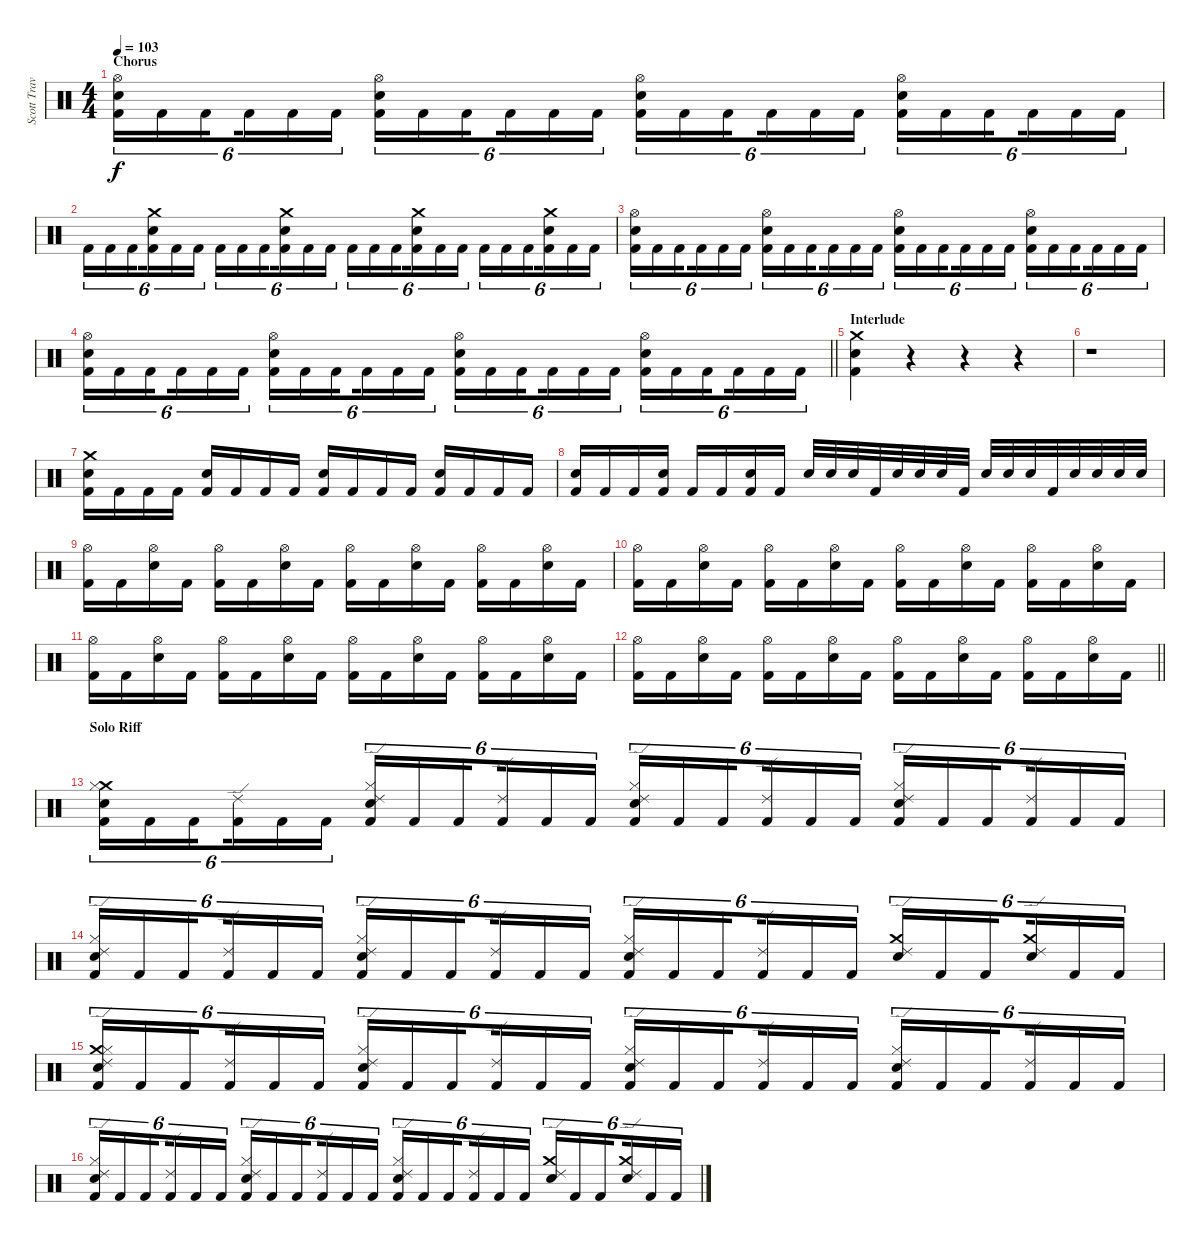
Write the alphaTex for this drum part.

\track ("Scott Travis" "Scott Trav") {instrument percussion}
\staff {score}
\articulation defaults
\ts (4 4)
\section ("" "Chorus")
\tempo 103
\clef neutral
\ks c
("Hi-Hat (open)" "Snare (hit) 2" "Kick (hit) 2").16{tu (6 4) dy f} "Kick (hit) 2".16{tu (6 4)} "Kick (hit) 2".16{tu (6 4) beam splitsecondary} "Kick (hit) 2".16{tu (6 4)} "Kick (hit) 2".16{tu (6 4)} "Kick (hit) 2".16{tu (6 4)} ("Hi-Hat (open)" "Snare (hit) 2" "Kick (hit) 2").16{tu (6 4)} "Kick (hit) 2".16{tu (6 4)} "Kick (hit) 2".16{tu (6 4) beam splitsecondary} "Kick (hit) 2".16{tu (6 4)} "Kick (hit) 2".16{tu (6 4)} "Kick (hit) 2".16{tu (6 4)} ("Hi-Hat (open)" "Snare (hit) 2" "Kick (hit) 2").16{tu (6 4)} "Kick (hit) 2".16{tu (6 4)} "Kick (hit) 2".16{tu (6 4) beam splitsecondary} "Kick (hit) 2".16{tu (6 4)} "Kick (hit) 2".16{tu (6 4)} "Kick (hit) 2".16{tu (6 4)} ("Hi-Hat (open)" "Snare (hit) 2" "Kick (hit) 2").16{tu (6 4)} "Kick (hit) 2".16{tu (6 4)} "Kick (hit) 2".16{tu (6 4) beam splitsecondary} "Kick (hit) 2".16{tu (6 4)} "Kick (hit) 2".16{tu (6 4)} "Kick (hit) 2".16{tu (6 4)} |
"Kick (hit) 2".16{tu (6 4)} "Kick (hit) 2".16{tu (6 4)} "Kick (hit) 2".16{tu (6 4) beam splitsecondary} ("Crash medium (hit)" "Snare (hit) 2" "Kick (hit) 2").16{tu (6 4)} "Kick (hit) 2".16{tu (6 4)} "Kick (hit) 2".16{tu (6 4)} "Kick (hit) 2".16{tu (6 4)} "Kick (hit) 2".16{tu (6 4)} "Kick (hit) 2".16{tu (6 4) beam splitsecondary} ("Crash medium (hit)" "Snare (hit) 2" "Kick (hit) 2").16{tu (6 4)} "Kick (hit) 2".16{tu (6 4)} "Kick (hit) 2".16{tu (6 4)} "Kick (hit) 2".16{tu (6 4)} "Kick (hit) 2".16{tu (6 4)} "Kick (hit) 2".16{tu (6 4) beam splitsecondary} ("Crash medium (hit)" "Snare (hit) 2" "Kick (hit) 2").16{tu (6 4)} "Kick (hit) 2".16{tu (6 4)} "Kick (hit) 2".16{tu (6 4)} "Kick (hit) 2".16{tu (6 4)} "Kick (hit) 2".16{tu (6 4)} "Kick (hit) 2".16{tu (6 4) beam splitsecondary} ("Snare (hit) 2" "Crash medium (hit)" "Kick (hit) 2").16{tu (6 4)} "Kick (hit) 2".16{tu (6 4)} "Kick (hit) 2".16{tu (6 4)} |
("Hi-Hat (open)" "Snare (hit) 2" "Kick (hit) 2").16{tu (6 4)} "Kick (hit) 2".16{tu (6 4)} "Kick (hit) 2".16{tu (6 4) beam splitsecondary} "Kick (hit) 2".16{tu (6 4)} "Kick (hit) 2".16{tu (6 4)} "Kick (hit) 2".16{tu (6 4)} ("Hi-Hat (open)" "Snare (hit) 2" "Kick (hit) 2").16{tu (6 4)} "Kick (hit) 2".16{tu (6 4)} "Kick (hit) 2".16{tu (6 4) beam splitsecondary} "Kick (hit) 2".16{tu (6 4)} "Kick (hit) 2".16{tu (6 4)} "Kick (hit) 2".16{tu (6 4)} ("Hi-Hat (open)" "Snare (hit) 2" "Kick (hit) 2").16{tu (6 4)} "Kick (hit) 2".16{tu (6 4)} "Kick (hit) 2".16{tu (6 4) beam splitsecondary} "Kick (hit) 2".16{tu (6 4)} "Kick (hit) 2".16{tu (6 4)} "Kick (hit) 2".16{tu (6 4)} ("Hi-Hat (open)" "Snare (hit) 2" "Kick (hit) 2").16{tu (6 4)} "Kick (hit) 2".16{tu (6 4)} "Kick (hit) 2".16{tu (6 4) beam splitsecondary} "Kick (hit) 2".16{tu (6 4)} "Kick (hit) 2".16{tu (6 4)} "Kick (hit) 2".16{tu (6 4)} |
\barLineRight lightlight
("Hi-Hat (open)" "Snare (hit) 2" "Kick (hit) 2").16{tu (6 4)} "Kick (hit) 2".16{tu (6 4)} "Kick (hit) 2".16{tu (6 4) beam splitsecondary} "Kick (hit) 2".16{tu (6 4)} "Kick (hit) 2".16{tu (6 4)} "Kick (hit) 2".16{tu (6 4)} ("Hi-Hat (open)" "Snare (hit) 2" "Kick (hit) 2").16{tu (6 4)} "Kick (hit) 2".16{tu (6 4)} "Kick (hit) 2".16{tu (6 4) beam splitsecondary} "Kick (hit) 2".16{tu (6 4)} "Kick (hit) 2".16{tu (6 4)} "Kick (hit) 2".16{tu (6 4)} ("Hi-Hat (open)" "Snare (hit) 2" "Kick (hit) 2").16{tu (6 4)} "Kick (hit) 2".16{tu (6 4)} "Kick (hit) 2".16{tu (6 4) beam splitsecondary} "Kick (hit) 2".16{tu (6 4)} "Kick (hit) 2".16{tu (6 4)} "Kick (hit) 2".16{tu (6 4)} ("Hi-Hat (open)" "Snare (hit) 2" "Kick (hit) 2").16{tu (6 4)} "Kick (hit) 2".16{tu (6 4)} "Kick (hit) 2".16{tu (6 4) beam splitsecondary} "Kick (hit) 2".16{tu (6 4)} "Kick (hit) 2".16{tu (6 4)} "Kick (hit) 2".16{tu (6 4)} |
\section ("" "Interlude")
("Crash medium (hit)" "Snare (hit) 2" "Kick (hit) 2").4 r.4 r.4 r.4 |
r.1 |
("Crash medium (hit)" "Snare (hit) 2" "Kick (hit) 2").16 "Kick (hit) 2".16 "Kick (hit) 2".16 "Kick (hit) 2".16 ("Snare (hit) 2" "Kick (hit) 2").16 "Kick (hit) 2".16 "Kick (hit) 2".16 "Kick (hit) 2".16 ("Snare (hit) 2" "Kick (hit) 2").16 "Kick (hit) 2".16 "Kick (hit) 2".16 "Kick (hit) 2".16 ("Snare (hit) 2" "Kick (hit) 2").16 "Kick (hit) 2".16 "Kick (hit) 2".16 "Kick (hit) 2".16 |
("Snare (hit) 2" "Kick (hit) 2").16 "Kick (hit) 2".16 "Kick (hit) 2".16 ("Snare (hit) 2" "Kick (hit) 2").16 "Kick (hit) 2".16 "Kick (hit) 2".16 ("Snare (hit) 2" "Kick (hit) 2").16 "Kick (hit) 2".16 "Snare (hit) 2".32 "Snare (hit) 2".32 "Snare (hit) 2".32 "Kick (hit) 2".32 "Snare (hit) 2".32 "Snare (hit) 2".32 "Snare (hit) 2".32 "Kick (hit) 2".32 "Snare (hit) 2".32 "Snare (hit) 2".32 "Snare (hit) 2".32 "Kick (hit) 2".32 "Snare (hit) 2".32 "Snare (hit) 2".32 "Snare (hit) 2".32 "Snare (hit) 2".32 |
("Hi-Hat (open)" "Kick (hit) 2").16 "Kick (hit) 2".16 ("Hi-Hat (open)" "Snare (hit) 2").16 "Kick (hit) 2".16 ("Hi-Hat (open)" "Kick (hit) 2").16 "Kick (hit) 2".16 ("Hi-Hat (open)" "Snare (hit) 2").16 "Kick (hit) 2".16 ("Hi-Hat (open)" "Kick (hit) 2").16 "Kick (hit) 2".16 ("Hi-Hat (open)" "Snare (hit) 2").16 "Kick (hit) 2".16 ("Hi-Hat (open)" "Kick (hit) 2").16 "Kick (hit) 2".16 ("Hi-Hat (open)" "Snare (hit) 2").16 "Kick (hit) 2".16 |
("Hi-Hat (open)" "Kick (hit) 2").16 "Kick (hit) 2".16 ("Hi-Hat (open)" "Snare (hit) 2").16 "Kick (hit) 2".16 ("Hi-Hat (open)" "Kick (hit) 2").16 "Kick (hit) 2".16 ("Hi-Hat (open)" "Snare (hit) 2").16 "Kick (hit) 2".16 ("Hi-Hat (open)" "Kick (hit) 2").16 "Kick (hit) 2".16 ("Hi-Hat (open)" "Snare (hit) 2").16 "Kick (hit) 2".16 ("Hi-Hat (open)" "Kick (hit) 2").16 "Kick (hit) 2".16 ("Hi-Hat (open)" "Snare (hit) 2").16 "Kick (hit) 2".16 |
("Hi-Hat (open)" "Kick (hit) 2").16 "Kick (hit) 2".16 ("Hi-Hat (open)" "Snare (hit) 2").16 "Kick (hit) 2".16 ("Hi-Hat (open)" "Kick (hit) 2").16 "Kick (hit) 2".16 ("Hi-Hat (open)" "Snare (hit) 2").16 "Kick (hit) 2".16 ("Hi-Hat (open)" "Kick (hit) 2").16 "Kick (hit) 2".16 ("Hi-Hat (open)" "Snare (hit) 2").16 "Kick (hit) 2".16 ("Hi-Hat (open)" "Kick (hit) 2").16 "Kick (hit) 2".16 ("Hi-Hat (open)" "Snare (hit) 2").16 "Kick (hit) 2".16 |
\barLineRight lightlight
("Hi-Hat (open)" "Kick (hit) 2").16 "Kick (hit) 2".16 ("Hi-Hat (open)" "Snare (hit) 2").16 "Kick (hit) 2".16 ("Hi-Hat (open)" "Kick (hit) 2").16 "Kick (hit) 2".16 ("Hi-Hat (open)" "Snare (hit) 2").16 "Kick (hit) 2".16 ("Hi-Hat (open)" "Kick (hit) 2").16 "Kick (hit) 2".16 ("Hi-Hat (open)" "Snare (hit) 2").16 "Kick (hit) 2".16 ("Hi-Hat (open)" "Kick (hit) 2").16 "Kick (hit) 2".16 ("Hi-Hat (open)" "Snare (hit) 2").16 "Kick (hit) 2".16 |
\section ("" "Solo Riff")
("Crash medium (hit)" "Hi-Hat (closed)" "Snare (hit) 2" "Kick (hit) 2").16{tu (6 4)} "Kick (hit) 2".16{tu (6 4)} "Kick (hit) 2".16{tu (6 4) beam splitsecondary} ("Ride (edge) 2" "Kick (hit) 2").16{tu (6 4)} "Kick (hit) 2".16{tu (6 4)} "Kick (hit) 2".16{tu (6 4)} ("Ride (edge) 2" "Hi-Hat (closed)" "Snare (hit) 2" "Kick (hit) 2").16{tu (6 4)} "Kick (hit) 2".16{tu (6 4)} "Kick (hit) 2".16{tu (6 4) beam splitsecondary} ("Ride (edge) 2" "Kick (hit) 2").16{tu (6 4)} "Kick (hit) 2".16{tu (6 4)} "Kick (hit) 2".16{tu (6 4)} ("Ride (edge) 2" "Hi-Hat (closed)" "Snare (hit) 2" "Kick (hit) 2").16{tu (6 4)} "Kick (hit) 2".16{tu (6 4)} "Kick (hit) 2".16{tu (6 4) beam splitsecondary} ("Ride (edge) 2" "Kick (hit) 2").16{tu (6 4)} "Kick (hit) 2".16{tu (6 4)} "Kick (hit) 2".16{tu (6 4)} ("Ride (edge) 2" "Hi-Hat (closed)" "Snare (hit) 2" "Kick (hit) 2").16{tu (6 4)} "Kick (hit) 2".16{tu (6 4)} "Kick (hit) 2".16{tu (6 4) beam splitsecondary} ("Ride (edge) 2" "Kick (hit) 2").16{tu (6 4)} "Kick (hit) 2".16{tu (6 4)} "Kick (hit) 2".16{tu (6 4)} |
("Ride (edge) 2" "Hi-Hat (closed)" "Snare (hit) 2" "Kick (hit) 2").16{tu (6 4)} "Kick (hit) 2".16{tu (6 4)} "Kick (hit) 2".16{tu (6 4) beam splitsecondary} ("Ride (edge) 2" "Kick (hit) 2").16{tu (6 4)} "Kick (hit) 2".16{tu (6 4)} "Kick (hit) 2".16{tu (6 4)} ("Ride (edge) 2" "Hi-Hat (closed)" "Snare (hit) 2" "Kick (hit) 2").16{tu (6 4)} "Kick (hit) 2".16{tu (6 4)} "Kick (hit) 2".16{tu (6 4) beam splitsecondary} ("Ride (edge) 2" "Kick (hit) 2").16{tu (6 4)} "Kick (hit) 2".16{tu (6 4)} "Kick (hit) 2".16{tu (6 4)} ("Ride (edge) 2" "Hi-Hat (closed)" "Snare (hit) 2" "Kick (hit) 2").16{tu (6 4)} "Kick (hit) 2".16{tu (6 4)} "Kick (hit) 2".16{tu (6 4) beam splitsecondary} ("Ride (edge) 2" "Kick (hit) 2").16{tu (6 4)} "Kick (hit) 2".16{tu (6 4)} "Kick (hit) 2".16{tu (6 4)} ("Ride (edge) 2" "Crash medium (hit)" "Snare (hit) 2").16{tu (6 4)} "Kick (hit) 2".16{tu (6 4)} "Kick (hit) 2".16{tu (6 4) beam splitsecondary} ("Ride (edge) 2" "Crash medium (hit)" "Snare (hit) 2").16{tu (6 4)} "Kick (hit) 2".16{tu (6 4)} "Kick (hit) 2".16{tu (6 4)} |
("Ride (edge) 2" "Crash medium (hit)" "Hi-Hat (closed)" "Snare (hit) 2" "Kick (hit) 2").16{tu (6 4)} "Kick (hit) 2".16{tu (6 4)} "Kick (hit) 2".16{tu (6 4) beam splitsecondary} ("Ride (edge) 2" "Kick (hit) 2").16{tu (6 4)} "Kick (hit) 2".16{tu (6 4)} "Kick (hit) 2".16{tu (6 4)} ("Ride (edge) 2" "Hi-Hat (closed)" "Snare (hit) 2" "Kick (hit) 2").16{tu (6 4)} "Kick (hit) 2".16{tu (6 4)} "Kick (hit) 2".16{tu (6 4) beam splitsecondary} ("Ride (edge) 2" "Kick (hit) 2").16{tu (6 4)} "Kick (hit) 2".16{tu (6 4)} "Kick (hit) 2".16{tu (6 4)} ("Ride (edge) 2" "Hi-Hat (closed)" "Snare (hit) 2" "Kick (hit) 2").16{tu (6 4)} "Kick (hit) 2".16{tu (6 4)} "Kick (hit) 2".16{tu (6 4) beam splitsecondary} ("Ride (edge) 2" "Kick (hit) 2").16{tu (6 4)} "Kick (hit) 2".16{tu (6 4)} "Kick (hit) 2".16{tu (6 4)} ("Ride (edge) 2" "Hi-Hat (closed)" "Snare (hit) 2" "Kick (hit) 2").16{tu (6 4)} "Kick (hit) 2".16{tu (6 4)} "Kick (hit) 2".16{tu (6 4) beam splitsecondary} ("Ride (edge) 2" "Kick (hit) 2").16{tu (6 4)} "Kick (hit) 2".16{tu (6 4)} "Kick (hit) 2".16{tu (6 4)} |
("Ride (edge) 2" "Hi-Hat (closed)" "Snare (hit) 2" "Kick (hit) 2").16{tu (6 4)} "Kick (hit) 2".16{tu (6 4)} "Kick (hit) 2".16{tu (6 4) beam splitsecondary} ("Ride (edge) 2" "Kick (hit) 2").16{tu (6 4)} "Kick (hit) 2".16{tu (6 4)} "Kick (hit) 2".16{tu (6 4)} ("Ride (edge) 2" "Hi-Hat (closed)" "Snare (hit) 2" "Kick (hit) 2").16{tu (6 4)} "Kick (hit) 2".16{tu (6 4)} "Kick (hit) 2".16{tu (6 4) beam splitsecondary} ("Ride (edge) 2" "Kick (hit) 2").16{tu (6 4)} "Kick (hit) 2".16{tu (6 4)} "Kick (hit) 2".16{tu (6 4)} ("Ride (edge) 2" "Hi-Hat (closed)" "Snare (hit) 2" "Kick (hit) 2").16{tu (6 4)} "Kick (hit) 2".16{tu (6 4)} "Kick (hit) 2".16{tu (6 4) beam splitsecondary} ("Ride (edge) 2" "Kick (hit) 2").16{tu (6 4)} "Kick (hit) 2".16{tu (6 4)} "Kick (hit) 2".16{tu (6 4)} ("Ride (edge) 2" "Crash medium (hit)" "Snare (hit) 2").16{tu (6 4)} "Kick (hit) 2".16{tu (6 4)} "Kick (hit) 2".16{tu (6 4) beam splitsecondary} ("Ride (edge) 2" "Crash medium (hit)" "Snare (hit) 2").16{tu (6 4)} "Kick (hit) 2".16{tu (6 4)} "Kick (hit) 2".16{tu (6 4)}
